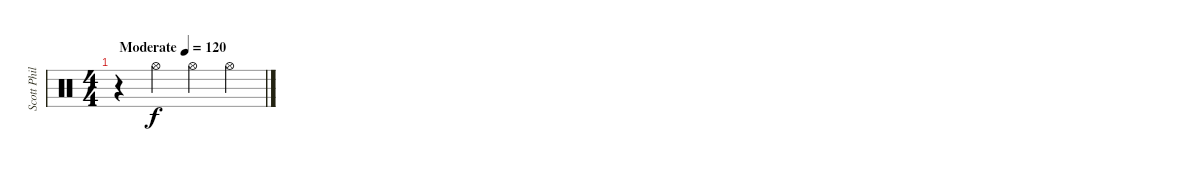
\track ("Scott Phillips" "Scott Phil") {instrument percussion}
\staff {score}
\articulation defaults
\ts (4 4)
\tempo (120 "Moderate")
\clef neutral
\ks c
r.4{dy f} "Hi-Hat (open)".4 "Hi-Hat (open)".4 "Hi-Hat (open)".4
